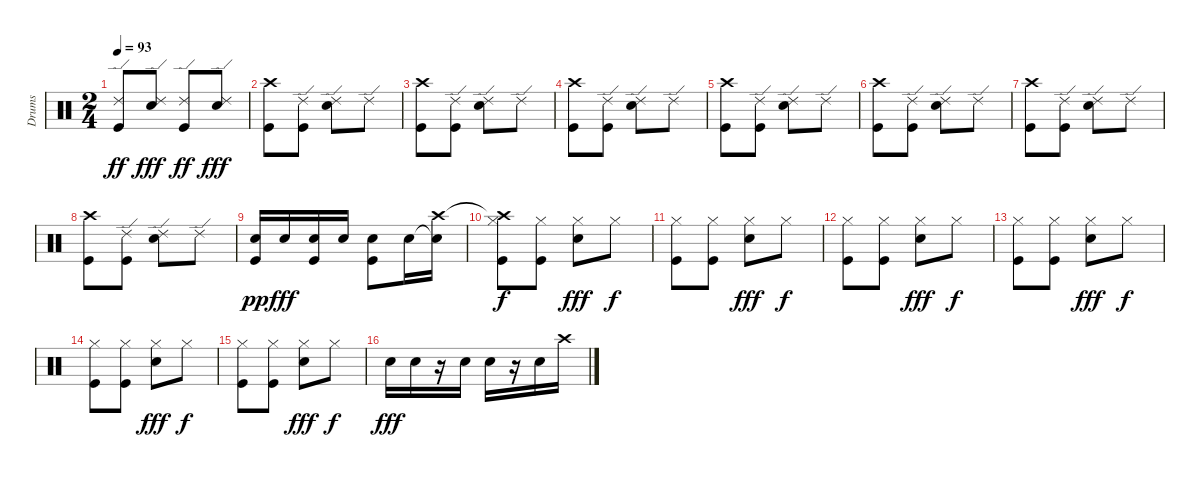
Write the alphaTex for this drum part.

\track ("Drums" "Drums") {instrument percussion}
\staff {score}
\articulation defaults
\ts (2 4)
\tempo 93
\clef neutral
\ks c
("Ride (edge) 2" "Kick (hit)").8{dy ff} ("Ride (edge) 2" "Snare (hit) 2").8{dy fff} ("Ride (edge) 2" "Kick (hit)").8{dy ff} ("Ride (edge) 2" "Snare (hit) 2").8{dy fff} |
("Crash high (hit)" "Kick (hit)").8 ("Ride (edge) 2" "Kick (hit)").8 ("Ride (edge) 2" "Snare (hit) 2").8 "Ride (edge) 2".8 |
("Crash high (hit)" "Kick (hit)").8 ("Ride (edge) 2" "Kick (hit)").8 ("Ride (edge) 2" "Snare (hit) 2").8 "Ride (edge) 2".8 |
("Crash high (hit)" "Kick (hit)").8 ("Ride (edge) 2" "Kick (hit)").8 ("Ride (edge) 2" "Snare (hit) 2").8 "Ride (edge) 2".8 |
("Crash high (hit)" "Kick (hit)").8 ("Ride (edge) 2" "Kick (hit)").8 ("Ride (edge) 2" "Snare (hit) 2").8 "Ride (edge) 2".8 |
("Crash high (hit)" "Kick (hit)").8 ("Ride (edge) 2" "Kick (hit)").8 ("Ride (edge) 2" "Snare (hit) 2").8 "Ride (edge) 2".8 |
("Crash high (hit)" "Kick (hit)").8 ("Ride (edge) 2" "Kick (hit)").8 ("Ride (edge) 2" "Snare (hit) 2").8 "Ride (edge) 2".8 |
("Crash high (hit)" "Kick (hit)").8 ("Ride (edge) 2" "Kick (hit)").8 ("Ride (edge) 2" "Snare (hit) 2").8 "Ride (edge) 2".8 |
("Snare (hit) 2" "Kick (hit)").16{dy pp} "Snare (hit) 2".16{dy fff} ("Snare (hit) 2" "Kick (hit)").16 "Snare (hit) 2".16 ("Snare (hit) 2" "Kick (hit)").8 "Snare (hit) 2".16 ("Snare (hit) 2"{t} "Crash high (hit)").16 |
("Hi-Hat (closed)" "Crash high (hit)"{t} "Kick (hit)").8{dy f} ("Hi-Hat (closed)" "Kick (hit)").8 ("Hi-Hat (closed)" "Snare (hit) 2").8{dy fff} "Hi-Hat (closed)".8{dy f} |
("Hi-Hat (closed)" "Kick (hit)").8 ("Hi-Hat (closed)" "Kick (hit)").8 ("Hi-Hat (closed)" "Snare (hit) 2").8{dy fff} "Hi-Hat (closed)".8{dy f} |
("Hi-Hat (closed)" "Kick (hit)").8 ("Hi-Hat (closed)" "Kick (hit)").8 ("Hi-Hat (closed)" "Snare (hit) 2").8{dy fff} "Hi-Hat (closed)".8{dy f} |
("Hi-Hat (closed)" "Kick (hit)").8 ("Hi-Hat (closed)" "Kick (hit)").8 ("Hi-Hat (closed)" "Snare (hit) 2").8{dy fff} "Hi-Hat (closed)".8{dy f} |
("Hi-Hat (closed)" "Kick (hit)").8 ("Hi-Hat (closed)" "Kick (hit)").8 ("Hi-Hat (closed)" "Snare (hit) 2").8{dy fff} "Hi-Hat (closed)".8{dy f} |
("Hi-Hat (closed)" "Kick (hit)").8 ("Hi-Hat (closed)" "Kick (hit)").8 ("Hi-Hat (closed)" "Snare (hit) 2").8{dy fff} "Hi-Hat (closed)".8{dy f} |
"Snare (hit) 2".16{dy fff} "Snare (hit) 2".16 r.16 "Snare (hit) 2".16 "Snare (hit) 2".16 r.16 "Snare (hit) 2".16 "Crash high (hit)".16
